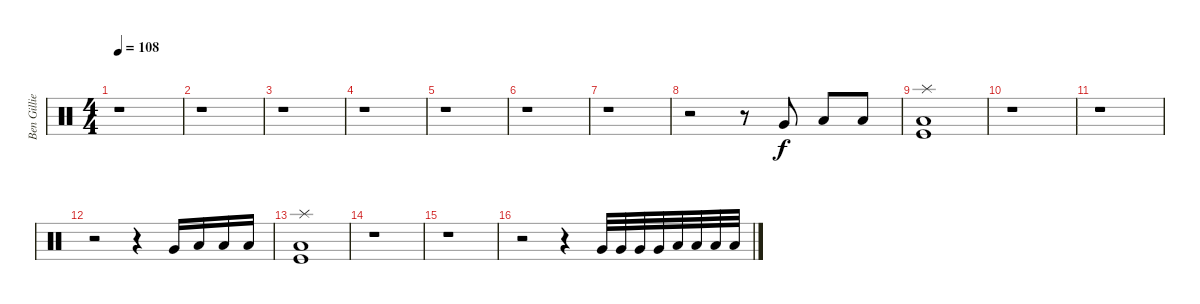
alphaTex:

\track ("Ben Gillies (percus)" "Ben Gillie") {instrument percussion}
\staff {score}
\articulation defaults
\ts (4 4)
\tempo 108
\clef neutral
\ks c
r.1{dy f} |
r.1 |
r.1 |
r.1 |
r.1 |
r.1 |
r.1 |
r.2 r.8 "Very Low Tom (hit)".8 "Low Floor Tom (hit)".8 "Low Floor Tom (hit)".8 |
("Splash (hit)" "Low Floor Tom (hit)" "Kick (hit)").1 |
r.1 |
r.1 |
r.2 r.4 "Very Low Tom (hit)".16 "Low Floor Tom (hit)".16 "Low Floor Tom (hit)".16 "Low Floor Tom (hit)".16 |
("Splash (hit)" "Low Floor Tom (hit)" "Kick (hit)").1 |
r.1 |
r.1 |
r.2 r.4 "Very Low Tom (hit)".32 "Very Low Tom (hit)".32 "Very Low Tom (hit)".32 "Very Low Tom (hit)".32 "Low Floor Tom (hit)".32 "Low Floor Tom (hit)".32 "Low Floor Tom (hit)".32 "Low Floor Tom (hit)".32
